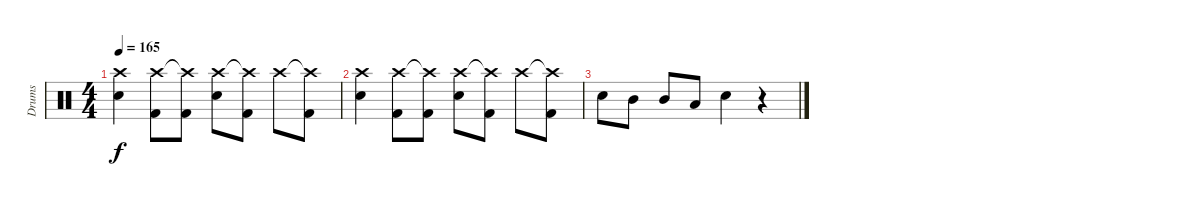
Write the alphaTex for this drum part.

\track ("Drums" "Drums") {instrument percussion}
\staff {score}
\articulation defaults
\ts (4 4)
\tempo 165
\clef neutral
\ks c
("Crash high (hit)" "Snare (hit) 2").4{dy f} ("Crash high (hit)" "Kick (hit) 2").8 ("Crash high (hit)"{t} "Kick (hit) 2").8 ("Crash high (hit)" "Snare (hit) 2").8 ("Crash high (hit)"{t} "Kick (hit) 2").8 "Crash high (hit)".8 ("Crash high (hit)"{t} "Kick (hit) 2").8 |
("Crash high (hit)" "Snare (hit) 2").4 ("Crash high (hit)" "Kick (hit) 2").8 ("Crash high (hit)"{t} "Kick (hit) 2").8 ("Crash high (hit)" "Snare (hit) 2").8 ("Crash high (hit)"{t} "Kick (hit) 2").8 "Crash high (hit)".8 ("Crash high (hit)"{t} "Kick (hit) 2").8 |
"Snare (hit) 2".8 "Mid Tom (hit)".8 "Mid Tom (hit)".8 "Low Tom (hit)".8 "Snare (hit) 2".4 r.4
